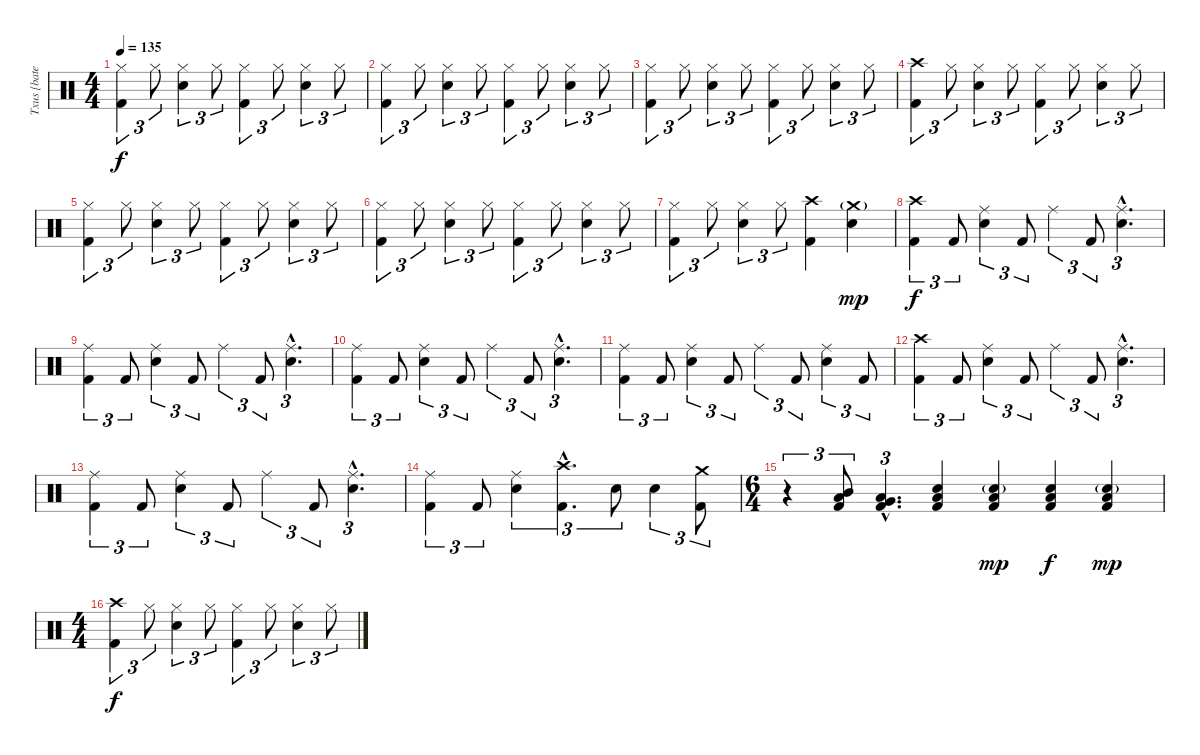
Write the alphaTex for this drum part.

\track ("Txus [bateria]" "Txus [bate") {instrument percussion}
\staff {score}
\articulation defaults
\ts (4 4)
\tempo 135
\clef neutral
\ks c
("Hi-Hat (closed)" "Kick (hit) 2").4{tu (3 2) dy f} "Hi-Hat (closed)".8{tu (3 2)} ("Hi-Hat (closed)" "Snare (hit) 2").4{tu (3 2)} "Hi-Hat (closed)".8{tu (3 2)} ("Hi-Hat (closed)" "Kick (hit) 2").4{tu (3 2)} "Hi-Hat (closed)".8{tu (3 2)} ("Hi-Hat (closed)" "Snare (hit) 2").4{tu (3 2)} "Hi-Hat (closed)".8{tu (3 2)} |
("Hi-Hat (closed)" "Kick (hit) 2").4{tu (3 2)} "Hi-Hat (closed)".8{tu (3 2)} ("Hi-Hat (closed)" "Snare (hit) 2").4{tu (3 2)} "Hi-Hat (closed)".8{tu (3 2)} ("Hi-Hat (closed)" "Kick (hit) 2").4{tu (3 2)} "Hi-Hat (closed)".8{tu (3 2)} ("Hi-Hat (closed)" "Snare (hit) 2").4{tu (3 2)} "Hi-Hat (closed)".8{tu (3 2)} |
("Hi-Hat (closed)" "Kick (hit) 2").4{tu (3 2)} "Hi-Hat (closed)".8{tu (3 2)} ("Hi-Hat (closed)" "Snare (hit) 2").4{tu (3 2)} "Hi-Hat (closed)".8{tu (3 2)} ("Hi-Hat (closed)" "Kick (hit) 2").4{tu (3 2)} "Hi-Hat (closed)".8{tu (3 2)} ("Hi-Hat (closed)" "Snare (hit) 2").4{tu (3 2)} "Hi-Hat (closed)".8{tu (3 2)} |
("Crash high (hit)" "Kick (hit) 2").4{tu (3 2)} "Hi-Hat (closed)".8{tu (3 2)} ("Hi-Hat (closed)" "Snare (hit) 2").4{tu (3 2)} "Hi-Hat (closed)".8{tu (3 2)} ("Hi-Hat (closed)" "Kick (hit) 2").4{tu (3 2)} "Hi-Hat (closed)".8{tu (3 2)} ("Hi-Hat (closed)" "Snare (hit) 2").4{tu (3 2)} "Hi-Hat (closed)".8{tu (3 2)} |
("Hi-Hat (closed)" "Kick (hit) 2").4{tu (3 2)} "Hi-Hat (closed)".8{tu (3 2)} ("Hi-Hat (closed)" "Snare (hit) 2").4{tu (3 2)} "Hi-Hat (closed)".8{tu (3 2)} ("Hi-Hat (closed)" "Kick (hit) 2").4{tu (3 2)} "Hi-Hat (closed)".8{tu (3 2)} ("Hi-Hat (closed)" "Snare (hit) 2").4{tu (3 2)} "Hi-Hat (closed)".8{tu (3 2)} |
("Hi-Hat (closed)" "Kick (hit) 2").4{tu (3 2)} "Hi-Hat (closed)".8{tu (3 2)} ("Hi-Hat (closed)" "Snare (hit) 2").4{tu (3 2)} "Hi-Hat (closed)".8{tu (3 2)} ("Hi-Hat (closed)" "Kick (hit) 2").4{tu (3 2)} "Hi-Hat (closed)".8{tu (3 2)} ("Hi-Hat (closed)" "Snare (hit) 2").4{tu (3 2)} "Hi-Hat (closed)".8{tu (3 2)} |
("Hi-Hat (closed)" "Kick (hit) 2").4{tu (3 2)} "Hi-Hat (closed)".8{tu (3 2)} ("Hi-Hat (closed)" "Snare (hit) 2").4{tu (3 2)} "Hi-Hat (closed)".8{tu (3 2)} ("Crash high (hit)" "Kick (hit) 2").4 ("Crash medium (hit)"{g} "Snare (hit) 2").4{dy mp} |
("Crash high (hit)" "Kick (hit) 2").4{tu (3 2) dy f} "Kick (hit) 2".8{tu (3 2)} ("Ride (middle)" "Snare (hit) 2").4{tu (3 2)} "Kick (hit) 2".8{tu (3 2)} "Ride (middle)".4{tu (3 2)} "Kick (hit) 2".8{tu (3 2)} ("Ride (middle)"{hac} "Snare (hit) 2"{hac}).4{d tu (3 2)} |
("Ride (middle)" "Kick (hit) 2").4{tu (3 2)} "Kick (hit) 2".8{tu (3 2)} ("Ride (middle)" "Snare (hit) 2").4{tu (3 2)} "Kick (hit) 2".8{tu (3 2)} "Ride (middle)".4{tu (3 2)} "Kick (hit) 2".8{tu (3 2)} ("Ride (middle)"{hac} "Snare (hit) 2"{hac}).4{d tu (3 2)} |
("Ride (middle)" "Kick (hit) 2").4{tu (3 2)} "Kick (hit) 2".8{tu (3 2)} ("Ride (middle)" "Snare (hit) 2").4{tu (3 2)} "Kick (hit) 2".8{tu (3 2)} "Ride (middle)".4{tu (3 2)} "Kick (hit) 2".8{tu (3 2)} ("Ride (middle)"{hac} "Snare (hit) 2"{hac}).4{d tu (3 2)} |
("Ride (middle)" "Kick (hit) 2").4{tu (3 2)} "Kick (hit) 2".8{tu (3 2)} ("Ride (middle)" "Snare (hit) 2").4{tu (3 2)} "Kick (hit) 2".8{tu (3 2)} "Ride (middle)".4{tu (3 2)} "Kick (hit) 2".8{tu (3 2)} ("Ride (middle)" "Snare (hit) 2").4{tu (3 2)} "Kick (hit) 2".8{tu (3 2)} |
("Crash high (hit)" "Kick (hit) 2").4{tu (3 2)} "Kick (hit) 2".8{tu (3 2)} ("Ride (middle)" "Snare (hit) 2").4{tu (3 2)} "Kick (hit) 2".8{tu (3 2)} "Ride (middle)".4{tu (3 2)} "Kick (hit) 2".8{tu (3 2)} ("Ride (middle)"{hac} "Snare (hit) 2"{hac}).4{d tu (3 2)} |
("Ride (middle)" "Kick (hit) 2").4{tu (3 2)} "Kick (hit) 2".8{tu (3 2)} ("Ride (middle)" "Snare (hit) 2").4{tu (3 2)} "Kick (hit) 2".8{tu (3 2)} "Ride (middle)".4{tu (3 2)} "Kick (hit) 2".8{tu (3 2)} ("Ride (middle)"{hac} "Snare (hit) 2"{hac}).4{d tu (3 2)} |
("Ride (middle)" "Kick (hit) 2").4{tu (3 2)} "Kick (hit) 2".8{tu (3 2)} ("Ride (middle)" "Snare (hit) 2").4{tu (3 2)} ("Crash high (hit)"{hac} "Kick (hit) 2"{hac}).4{d tu (3 2)} "Snare (hit) 2".8{tu (3 2)} "Snare (hit) 2".4{tu (3 2)} ("Crash medium (hit)" "Kick (hit) 2").8{tu (3 2)} |
\ts (6 4)
r.4{tu (3 2)} ("Mid Tom (hit)" "Low Floor Tom (hit)" "Kick (hit) 2").8{tu (3 2)} ("Very Low Tom (hit)"{hac} "Low Floor Tom (hit)"{hac} "Kick (hit) 2"{hac}).4{d tu (3 2)} ("Snare (hit) 2" "Low Floor Tom (hit)" "Kick (hit) 2").4 ("Snare (hit) 2"{g} "Low Floor Tom (hit)" "Kick (hit) 2").4{dy mp} ("Snare (hit) 2" "Low Floor Tom (hit)" "Kick (hit) 2").4{dy f} ("Snare (hit) 2"{g} "Low Floor Tom (hit)" "Kick (hit) 2").4{dy mp} |
\ts (4 4)
("Crash high (hit)" "Kick (hit) 2").4{tu (3 2) dy f} "Hi-Hat (closed)".8{tu (3 2)} ("Hi-Hat (closed)" "Snare (hit) 2").4{tu (3 2)} "Hi-Hat (closed)".8{tu (3 2)} ("Hi-Hat (closed)" "Kick (hit) 2").4{tu (3 2)} "Hi-Hat (closed)".8{tu (3 2)} ("Hi-Hat (closed)" "Snare (hit) 2").4{tu (3 2)} "Hi-Hat (closed)".8{tu (3 2)}
